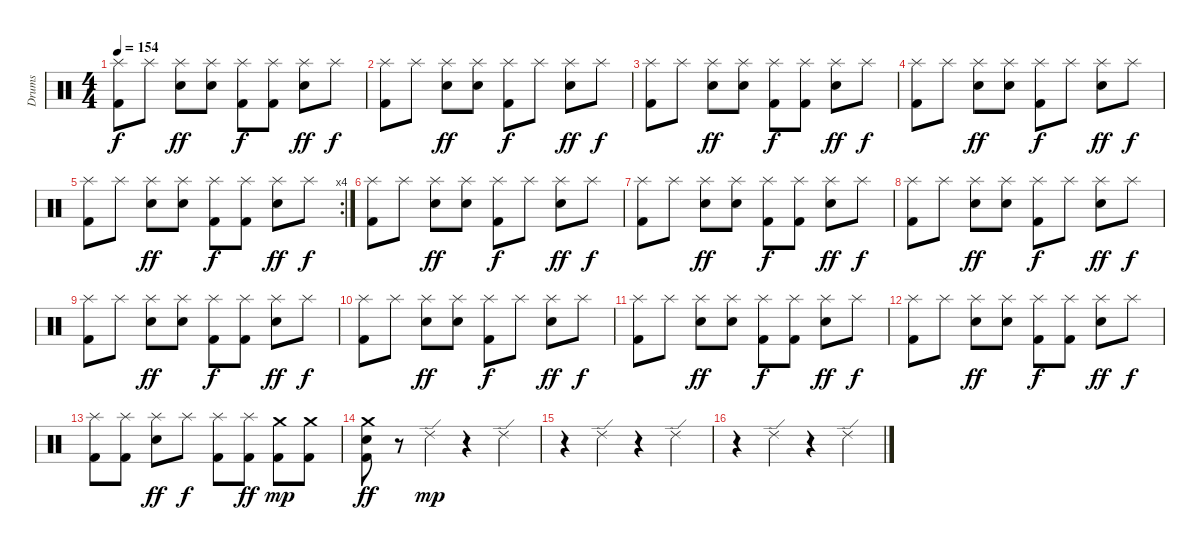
\track ("Drums" "Drums") {instrument percussion}
\staff {score}
\articulation defaults
\ts (4 4)
\tempo 154
\clef neutral
\ks c
("Splash (hit)" "Kick (hit) 2").8{dy f} "Splash (hit)".8 ("Splash (hit)" "Snare (hit) 2").8{dy ff} ("Splash (hit)" "Snare (hit) 2").8 ("Splash (hit)" "Kick (hit) 2").8{dy f} ("Splash (hit)" "Kick (hit) 2").8 ("Splash (hit)" "Snare (hit) 2").8{dy ff} "Splash (hit)".8{dy f} |
("Splash (hit)" "Kick (hit) 2").8 "Splash (hit)".8 ("Splash (hit)" "Snare (hit) 2").8{dy ff} ("Splash (hit)" "Snare (hit) 2").8 ("Splash (hit)" "Kick (hit) 2").8{dy f} "Splash (hit)".8 ("Splash (hit)" "Snare (hit) 2").8{dy ff} "Splash (hit)".8{dy f} |
("Splash (hit)" "Kick (hit) 2").8 "Splash (hit)".8 ("Splash (hit)" "Snare (hit) 2").8{dy ff} ("Splash (hit)" "Snare (hit) 2").8 ("Splash (hit)" "Kick (hit) 2").8{dy f} ("Splash (hit)" "Kick (hit) 2").8 ("Splash (hit)" "Snare (hit) 2").8{dy ff} "Splash (hit)".8{dy f} |
("Splash (hit)" "Kick (hit) 2").8 "Splash (hit)".8 ("Splash (hit)" "Snare (hit) 2").8{dy ff} ("Splash (hit)" "Snare (hit) 2").8 ("Splash (hit)" "Kick (hit) 2").8{dy f} "Splash (hit)".8 ("Splash (hit)" "Snare (hit) 2").8{dy ff} "Splash (hit)".8{dy f} |
\rc 4
("Splash (hit)" "Kick (hit) 2").8 "Splash (hit)".8 ("Splash (hit)" "Snare (hit) 2").8{dy ff} ("Splash (hit)" "Snare (hit) 2").8 ("Splash (hit)" "Kick (hit) 2").8{dy f} ("Splash (hit)" "Kick (hit) 2").8 ("Splash (hit)" "Snare (hit) 2").8{dy ff} "Splash (hit)".8{dy f} |
("Splash (hit)" "Kick (hit) 2").8 "Splash (hit)".8 ("Splash (hit)" "Snare (hit) 2").8{dy ff} ("Splash (hit)" "Snare (hit) 2").8 ("Splash (hit)" "Kick (hit) 2").8{dy f} "Splash (hit)".8 ("Splash (hit)" "Snare (hit) 2").8{dy ff} "Splash (hit)".8{dy f} |
("Splash (hit)" "Kick (hit) 2").8 "Splash (hit)".8 ("Splash (hit)" "Snare (hit) 2").8{dy ff} ("Splash (hit)" "Snare (hit) 2").8 ("Splash (hit)" "Kick (hit) 2").8{dy f} ("Splash (hit)" "Kick (hit) 2").8 ("Splash (hit)" "Snare (hit) 2").8{dy ff} "Splash (hit)".8{dy f} |
("Splash (hit)" "Kick (hit) 2").8 "Splash (hit)".8 ("Splash (hit)" "Snare (hit) 2").8{dy ff} ("Splash (hit)" "Snare (hit) 2").8 ("Splash (hit)" "Kick (hit) 2").8{dy f} "Splash (hit)".8 ("Splash (hit)" "Snare (hit) 2").8{dy ff} "Splash (hit)".8{dy f} |
("Splash (hit)" "Kick (hit) 2").8 "Splash (hit)".8 ("Splash (hit)" "Snare (hit) 2").8{dy ff} ("Splash (hit)" "Snare (hit) 2").8 ("Splash (hit)" "Kick (hit) 2").8{dy f} ("Splash (hit)" "Kick (hit) 2").8 ("Splash (hit)" "Snare (hit) 2").8{dy ff} "Splash (hit)".8{dy f} |
("Splash (hit)" "Kick (hit) 2").8 "Splash (hit)".8 ("Splash (hit)" "Snare (hit) 2").8{dy ff} ("Splash (hit)" "Snare (hit) 2").8 ("Splash (hit)" "Kick (hit) 2").8{dy f} "Splash (hit)".8 ("Splash (hit)" "Snare (hit) 2").8{dy ff} "Splash (hit)".8{dy f} |
("Splash (hit)" "Kick (hit) 2").8 "Splash (hit)".8 ("Splash (hit)" "Snare (hit) 2").8{dy ff} ("Splash (hit)" "Snare (hit) 2").8 ("Splash (hit)" "Kick (hit) 2").8{dy f} ("Splash (hit)" "Kick (hit) 2").8 ("Splash (hit)" "Snare (hit) 2").8{dy ff} "Splash (hit)".8{dy f} |
("Splash (hit)" "Kick (hit) 2").8 "Splash (hit)".8 ("Splash (hit)" "Snare (hit) 2").8{dy ff} ("Splash (hit)" "Snare (hit) 2").8 ("Splash (hit)" "Kick (hit) 2").8{dy f} ("Splash (hit)" "Kick (hit) 2").8 ("Splash (hit)" "Snare (hit) 2").8{dy ff} "Splash (hit)".8{dy f} |
("Splash (hit)" "Kick (hit) 2").8 ("Splash (hit)" "Kick (hit) 2").8 ("Splash (hit)" "Snare (hit) 2").8{dy ff} "Splash (hit)".8{dy f} ("Splash (hit)" "Kick (hit) 2").8 ("Splash (hit)" "Kick (hit) 2").8{dy ff} ("Crash medium (hit)" "Kick (hit) 2").8{dy mp} ("Crash medium (hit)" "Kick (hit) 2").8 |
("Crash medium (hit)" "Snare (hit) 2" "Kick (hit) 2").8{dy ff} r.8 "Ride (edge) 2".4{dy mp} r.4 "Ride (edge) 2".4 |
r.4 "Ride (edge) 2".4 r.4 "Ride (edge) 2".4 |
r.4 "Ride (edge) 2".4 r.4 "Ride (edge) 2".4
